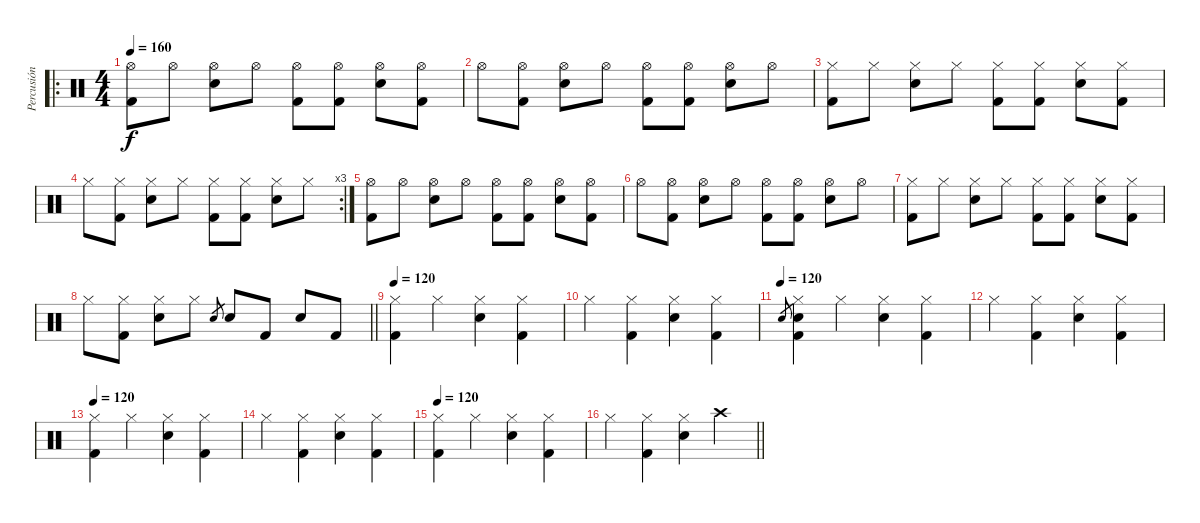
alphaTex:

\track ("Percusión (Nevi)" "Percusión ") {instrument percussion}
\staff {score}
\articulation defaults
\ro
\ts (4 4)
\tempo 160
\clef neutral
\ks c
("Kick (hit) 2" "Hi-Hat (open)").8{dy f} "Hi-Hat (open)".8 ("Hi-Hat (open)" "Snare (hit) 2").8 "Hi-Hat (open)".8 ("Kick (hit) 2" "Hi-Hat (open)").8 ("Kick (hit) 2" "Hi-Hat (open)").8 ("Hi-Hat (open)" "Snare (hit) 2").8 ("Kick (hit) 2" "Hi-Hat (open)").8 |
"Hi-Hat (open)".8 ("Kick (hit) 2" "Hi-Hat (open)").8 ("Hi-Hat (open)" "Snare (hit) 2").8 "Hi-Hat (open)".8 ("Kick (hit) 2" "Hi-Hat (open)").8 ("Kick (hit) 2" "Hi-Hat (open)").8 ("Hi-Hat (open)" "Snare (hit) 2").8 "Hi-Hat (open)".8 |
("Kick (hit) 2" "Hi-Hat (closed)").8 "Hi-Hat (closed)".8 ("Hi-Hat (closed)" "Snare (hit) 2").8 "Hi-Hat (closed)".8 ("Kick (hit) 2" "Hi-Hat (closed)").8 ("Kick (hit) 2" "Hi-Hat (closed)").8 ("Hi-Hat (closed)" "Snare (hit) 2").8 ("Kick (hit) 2" "Hi-Hat (closed)").8 |
\rc 3 "Hi-Hat (closed)".8
("Kick (hit) 2" "Hi-Hat (closed)").8 ("Hi-Hat (closed)" "Snare (hit) 2").8 "Hi-Hat (closed)".8 ("Kick (hit) 2" "Hi-Hat (closed)").8 ("Kick (hit) 2" "Hi-Hat (closed)").8 ("Hi-Hat (closed)" "Snare (hit) 2").8 "Hi-Hat (closed)".8 |
("Kick (hit) 2" "Hi-Hat (open)").8 "Hi-Hat (open)".8 ("Hi-Hat (open)" "Snare (hit) 2").8 "Hi-Hat (open)".8 ("Kick (hit) 2" "Hi-Hat (open)").8 ("Kick (hit) 2" "Hi-Hat (open)").8 ("Hi-Hat (open)" "Snare (hit) 2").8 ("Kick (hit) 2" "Hi-Hat (open)").8 |
"Hi-Hat (open)".8 ("Kick (hit) 2" "Hi-Hat (open)").8 ("Hi-Hat (open)" "Snare (hit) 2").8 "Hi-Hat (open)".8 ("Kick (hit) 2" "Hi-Hat (open)").8 ("Kick (hit) 2" "Hi-Hat (open)").8 ("Hi-Hat (open)" "Snare (hit) 2").8 "Hi-Hat (open)".8 |
("Kick (hit) 2" "Hi-Hat (closed)").8 "Hi-Hat (closed)".8 ("Hi-Hat (closed)" "Snare (hit) 2").8 "Hi-Hat (closed)".8 ("Kick (hit) 2" "Hi-Hat (closed)").8 ("Kick (hit) 2" "Hi-Hat (closed)").8 ("Hi-Hat (closed)" "Snare (hit) 2").8 ("Kick (hit) 2" "Hi-Hat (closed)").8 |
\barLineRight lightlight "Hi-Hat (closed)".8
("Kick (hit) 2" "Hi-Hat (closed)").8 ("Hi-Hat (closed)" "Snare (hit) 2").8 "Hi-Hat (closed)".8 "Snare (hit) 2".8{gr} "Snare (hit) 2".8 "Kick (hit) 2".8 "Snare (hit) 2".8 "Kick (hit) 2".8 |
\tempo 100
\tempo 120
("Kick (hit) 2" "Hi-Hat (closed)").4 "Hi-Hat (closed)".4 ("Hi-Hat (closed)" "Snare (hit) 2").4 ("Kick (hit) 2" "Hi-Hat (closed)").4 |
"Hi-Hat (closed)".4 ("Kick (hit) 2" "Hi-Hat (closed)").4 ("Hi-Hat (closed)" "Snare (hit) 2").4 ("Kick (hit) 2" "Hi-Hat (closed)").4 |
\tempo (120)
"Snare (hit) 2".8{gr} ("Kick (hit) 2" "Hi-Hat (closed)" "Snare (hit) 2").4 "Hi-Hat (closed)".4 ("Hi-Hat (closed)" "Snare (hit) 2").4 ("Kick (hit) 2" "Hi-Hat (closed)").4 |
"Hi-Hat (closed)".4 ("Kick (hit) 2" "Hi-Hat (closed)").4 ("Hi-Hat (closed)" "Snare (hit) 2").4 ("Kick (hit) 2" "Hi-Hat (closed)").4 |
\tempo 100
\tempo 120
("Kick (hit) 2" "Hi-Hat (closed)").4 "Hi-Hat (closed)".4 ("Hi-Hat (closed)" "Snare (hit) 2").4 ("Kick (hit) 2" "Hi-Hat (closed)").4 |
"Hi-Hat (closed)".4 ("Kick (hit) 2" "Hi-Hat (closed)").4 ("Hi-Hat (closed)" "Snare (hit) 2").4 ("Kick (hit) 2" "Hi-Hat (closed)").4 |
\tempo 120
("Kick (hit) 2" "Hi-Hat (closed)").4 "Hi-Hat (closed)".4 ("Hi-Hat (closed)" "Snare (hit) 2").4 ("Kick (hit) 2" "Hi-Hat (closed)").4 |
\barLineRight lightlight "Hi-Hat (closed)".4
("Kick (hit) 2" "Hi-Hat (closed)").4 ("Hi-Hat (closed)" "Snare (hit) 2").4 "Crash high (hit)".4
